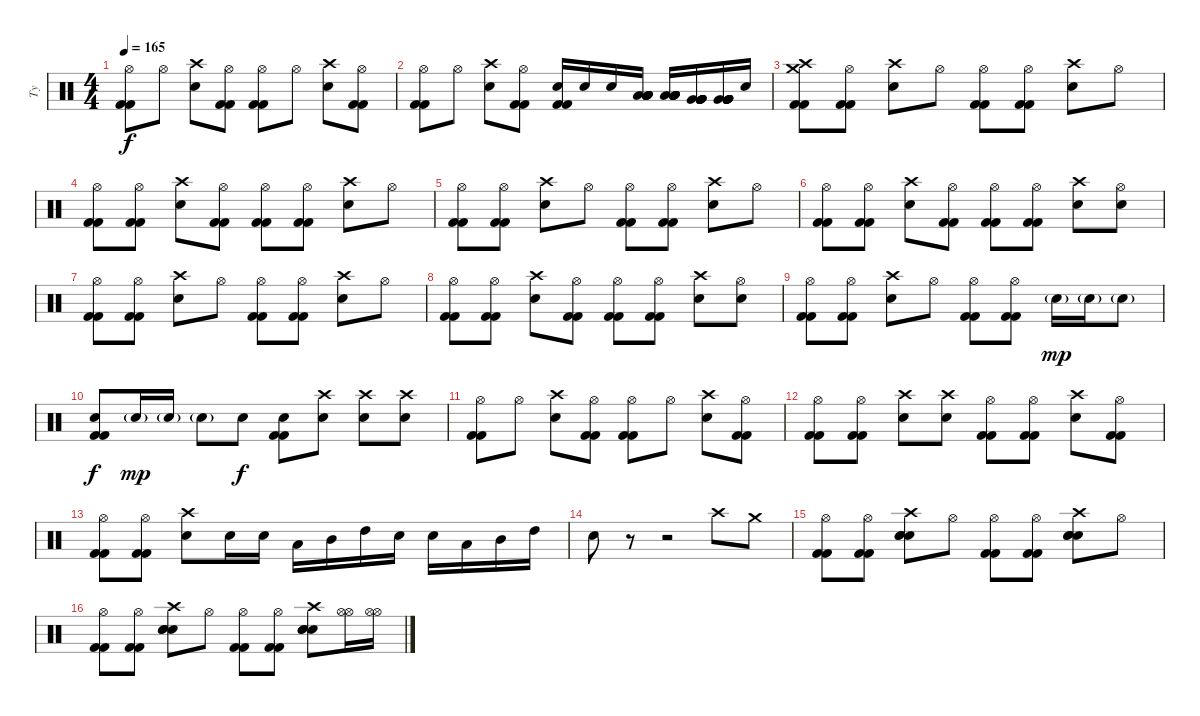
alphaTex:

\track ("Ty" "Ty") {instrument percussion}
\staff {score}
\articulation defaults
\ts (4 4)
\tempo 165
\clef neutral
\ks c
("Hi-Hat (open)" "Kick (hit) 2" "Kick (hit) 2").8{dy f} "Hi-Hat (open)".8 ("Crash high (hit)" "Electric Snare (hit)").8 ("Hi-Hat (open)" "Kick (hit) 2" "Kick (hit) 2").8 ("Hi-Hat (open)" "Kick (hit) 2" "Kick (hit) 2").8 "Hi-Hat (open)".8 ("Crash high (hit)" "Electric Snare (hit)").8 ("Hi-Hat (open)" "Kick (hit) 2" "Kick (hit) 2").8 |
("Hi-Hat (open)" "Kick (hit) 2" "Kick (hit) 2").8 "Hi-Hat (open)".8 ("Crash high (hit)" "Electric Snare (hit)").8 ("Hi-Hat (open)" "Kick (hit) 2" "Kick (hit) 2").8 ("Electric Snare (hit)" "Kick (hit) 2" "Kick (hit) 2").16 "Electric Snare (hit)".16 "Electric Snare (hit)".16 ("Low Floor Tom (hit)" "Low Floor Tom (hit)" "Low Floor Tom (hit)" "Low Floor Tom (hit)" "Low Floor Tom (hit)" "Low Floor Tom (hit)").16 ("Low Floor Tom (hit)" "Low Floor Tom (hit)" "Low Floor Tom (hit)" "Low Floor Tom (hit)" "Low Floor Tom (hit)" "Low Floor Tom (hit)").16 ("Very Low Tom (hit)" "Very Low Tom (hit)" "Very Low Tom (hit)" "Very Low Tom (hit)" "Very Low Tom (hit)" "Very Low Tom (hit)").16 ("Very Low Tom (hit)" "Very Low Tom (hit)" "Very Low Tom (hit)" "Very Low Tom (hit)" "Very Low Tom (hit)" "Very Low Tom (hit)").16 "Electric Snare (hit)".16 |
("Crash high (hit)" "Crash medium (hit)" "Kick (hit) 2" "Kick (hit) 2").8 ("Hi-Hat (open)" "Kick (hit) 2" "Kick (hit) 2").8 ("Crash high (hit)" "Electric Snare (hit)").8 "Hi-Hat (open)".8 ("Hi-Hat (open)" "Kick (hit) 2" "Kick (hit) 2").8 ("Hi-Hat (open)" "Kick (hit) 2" "Kick (hit) 2").8 ("Crash high (hit)" "Electric Snare (hit)").8 "Hi-Hat (open)".8 |
("Hi-Hat (open)" "Kick (hit) 2" "Kick (hit) 2").8 ("Hi-Hat (open)" "Kick (hit) 2" "Kick (hit) 2").8 ("Crash high (hit)" "Electric Snare (hit)").8 ("Hi-Hat (open)" "Kick (hit) 2" "Kick (hit) 2").8 ("Hi-Hat (open)" "Kick (hit) 2" "Kick (hit) 2").8 ("Hi-Hat (open)" "Kick (hit) 2" "Kick (hit) 2").8 ("Crash high (hit)" "Electric Snare (hit)").8 "Hi-Hat (open)".8 |
("Hi-Hat (open)" "Kick (hit) 2" "Kick (hit) 2").8 ("Hi-Hat (open)" "Kick (hit) 2" "Kick (hit) 2").8 ("Crash high (hit)" "Electric Snare (hit)").8 "Hi-Hat (open)".8 ("Hi-Hat (open)" "Kick (hit) 2" "Kick (hit) 2").8 ("Hi-Hat (open)" "Kick (hit) 2" "Kick (hit) 2").8 ("Crash high (hit)" "Electric Snare (hit)").8 "Hi-Hat (open)".8 |
("Hi-Hat (open)" "Kick (hit) 2" "Kick (hit) 2").8 ("Hi-Hat (open)" "Kick (hit) 2" "Kick (hit) 2").8 ("Crash high (hit)" "Electric Snare (hit)").8 ("Hi-Hat (open)" "Kick (hit) 2" "Kick (hit) 2").8 ("Hi-Hat (open)" "Kick (hit) 2" "Kick (hit) 2").8 ("Hi-Hat (open)" "Kick (hit) 2" "Kick (hit) 2").8 ("Crash high (hit)" "Electric Snare (hit)").8 ("Hi-Hat (open)" "Electric Snare (hit)").8 |
("Hi-Hat (open)" "Kick (hit) 2" "Kick (hit) 2").8 ("Hi-Hat (open)" "Kick (hit) 2" "Kick (hit) 2").8 ("Crash high (hit)" "Electric Snare (hit)").8 "Hi-Hat (open)".8 ("Hi-Hat (open)" "Kick (hit) 2" "Kick (hit) 2").8 ("Hi-Hat (open)" "Kick (hit) 2" "Kick (hit) 2").8 ("Crash high (hit)" "Electric Snare (hit)").8 "Hi-Hat (open)".8 |
("Hi-Hat (open)" "Kick (hit) 2" "Kick (hit) 2").8 ("Hi-Hat (open)" "Kick (hit) 2" "Kick (hit) 2").8 ("Crash high (hit)" "Electric Snare (hit)").8 ("Hi-Hat (open)" "Kick (hit) 2" "Kick (hit) 2").8 ("Hi-Hat (open)" "Kick (hit) 2" "Kick (hit) 2").8 ("Hi-Hat (open)" "Kick (hit) 2" "Kick (hit) 2").8 ("Crash high (hit)" "Electric Snare (hit)").8 ("Hi-Hat (open)" "Electric Snare (hit)").8 |
("Hi-Hat (open)" "Kick (hit) 2" "Kick (hit) 2").8 ("Hi-Hat (open)" "Kick (hit) 2" "Kick (hit) 2").8 ("Crash high (hit)" "Electric Snare (hit)").8 "Hi-Hat (open)".8 ("Hi-Hat (open)" "Kick (hit) 2" "Kick (hit) 2").8 ("Hi-Hat (open)" "Kick (hit) 2" "Kick (hit) 2").8 "Electric Snare (hit)"{g}.16{dy mp} "Electric Snare (hit)"{g}.16 "Electric Snare (hit)"{g}.8 |
("Electric Snare (hit)" "Kick (hit) 2" "Kick (hit) 2").8{dy f} "Electric Snare (hit)"{g}.16{dy mp} "Electric Snare (hit)"{g}.16 "Electric Snare (hit)"{g}.8 "Electric Snare (hit)".8{dy f} ("Electric Snare (hit)" "Kick (hit) 2" "Kick (hit) 2").8 ("Crash high (hit)" "Electric Snare (hit)").8 ("Crash high (hit)" "Electric Snare (hit)").8 ("Crash high (hit)" "Electric Snare (hit)").8 |
("Hi-Hat (open)" "Kick (hit) 2" "Kick (hit) 2").8 "Hi-Hat (open)".8 ("Crash high (hit)" "Electric Snare (hit)").8 ("Hi-Hat (open)" "Kick (hit) 2" "Kick (hit) 2").8 ("Hi-Hat (open)" "Kick (hit) 2" "Kick (hit) 2").8 "Hi-Hat (open)".8 ("Crash high (hit)" "Electric Snare (hit)").8 ("Hi-Hat (open)" "Kick (hit) 2" "Kick (hit) 2").8 |
("Hi-Hat (open)" "Kick (hit) 2" "Kick (hit) 2").8 ("Hi-Hat (open)" "Kick (hit) 2" "Kick (hit) 2").8 ("Crash high (hit)" "Electric Snare (hit)").8 ("Crash high (hit)" "Electric Snare (hit)").8 ("Hi-Hat (open)" "Kick (hit) 2" "Kick (hit) 2").8 ("Hi-Hat (open)" "Kick (hit) 2" "Kick (hit) 2").8 ("Crash high (hit)" "Electric Snare (hit)").8 ("Hi-Hat (open)" "Kick (hit) 2" "Kick (hit) 2").8 |
("Hi-Hat (open)" "Kick (hit) 2" "Kick (hit) 2").8 ("Hi-Hat (open)" "Kick (hit) 2" "Kick (hit) 2").8 ("Crash high (hit)" "Electric Snare (hit)").8 "Electric Snare (hit)".16 "Electric Snare (hit)".16 "Low Tom (hit)".16 "Mid Tom (hit)".16 "High Tom (hit)".16 "Electric Snare (hit)".16 "Electric Snare (hit)".16 "Low Tom (hit)".16 "Mid Tom (hit)".16 "High Tom (hit)".16 |
"Electric Snare (hit)".8 r.8 r.2 "Crash high (hit)".8 "Crash medium (hit)".8 |
("Hi-Hat (open)" "Kick (hit) 2" "Kick (hit) 2").8 ("Hi-Hat (open)" "Kick (hit) 2" "Kick (hit) 2").8 ("Crash high (hit)" "Hand Clap (hit)" "Hand Clap (hit)" "Electric Snare (hit)").8 "Hi-Hat (open)".8 ("Hi-Hat (open)" "Kick (hit) 2" "Kick (hit) 2").8 ("Hi-Hat (open)" "Kick (hit) 2" "Kick (hit) 2").8 ("Crash high (hit)" "Hand Clap (hit)" "Hand Clap (hit)" "Electric Snare (hit)").8 "Hi-Hat (open)".8 |
("Hi-Hat (open)" "Kick (hit) 2" "Kick (hit) 2").8 ("Hi-Hat (open)" "Kick (hit) 2" "Kick (hit) 2").8 ("Crash high (hit)" "Hand Clap (hit)" "Hand Clap (hit)" "Electric Snare (hit)").8 "Hi-Hat (open)".8 ("Hi-Hat (open)" "Kick (hit) 2" "Kick (hit) 2").8 ("Hi-Hat (open)" "Kick (hit) 2" "Kick (hit) 2").8 ("Crash high (hit)" "Hand Clap (hit)" "Hand Clap (hit)" "Electric Snare (hit)").8 ("Hi-Hat (open)" "Hi-Hat (open)").16 ("Hi-Hat (open)" "Hi-Hat (open)").16
